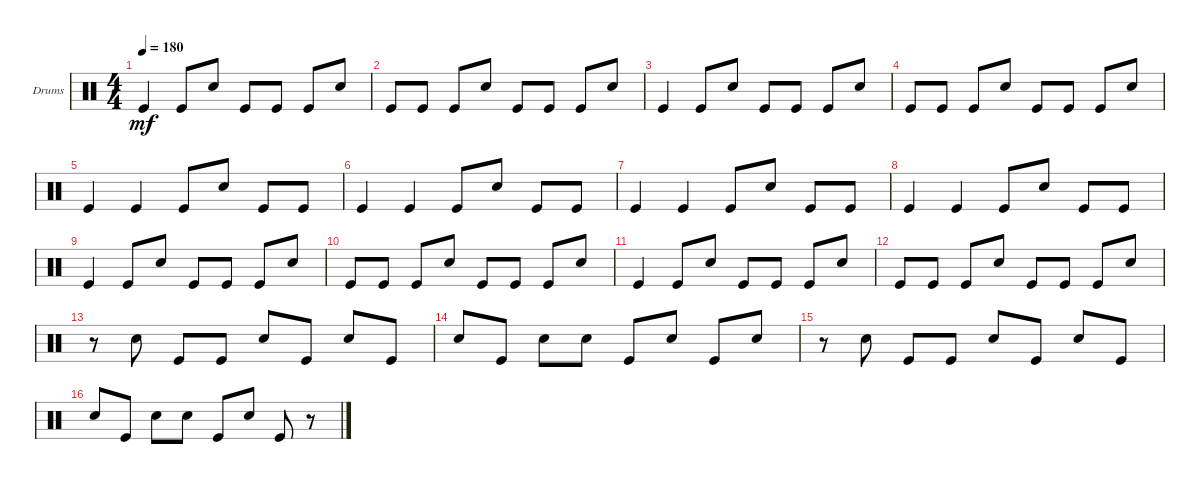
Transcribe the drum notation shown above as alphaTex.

\defaultSystemsLayout 4
\bracketExtendMode groupsimilarinstruments
\firstSystemTrackNameOrientation horizontal
\otherSystemsTrackNameOrientation horizontal
\track ("Drumkit" "Drums") {instrument percussion}
\staff {score}
\articulation defaults
\ts (4 4)
\tempo 180
\clef neutral
\ks c "Kick (hit)".4{dy mf} "Kick (hit)".8 "Snare (hit) 2".8 "Kick (hit)".8 "Kick (hit)".8 "Kick (hit)".8 "Snare (hit) 2".8
|
"Kick (hit)".8 "Kick (hit)".8 "Kick (hit)".8 "Snare (hit) 2".8 "Kick (hit)".8 "Kick (hit)".8 "Kick (hit)".8 "Snare (hit) 2".8 |
"Kick (hit)".4 "Kick (hit)".8 "Snare (hit) 2".8 "Kick (hit)".8 "Kick (hit)".8 "Kick (hit)".8 "Snare (hit) 2".8 |
"Kick (hit)".8 "Kick (hit)".8 "Kick (hit)".8 "Snare (hit) 2".8 "Kick (hit)".8 "Kick (hit)".8 "Kick (hit)".8 "Snare (hit) 2".8 |
"Kick (hit)".4 "Kick (hit)".4 "Kick (hit)".8 "Snare (hit) 2".8 "Kick (hit)".8 "Kick (hit)".8 |
"Kick (hit)".4 "Kick (hit)".4 "Kick (hit)".8 "Snare (hit) 2".8 "Kick (hit)".8 "Kick (hit)".8 |
"Kick (hit)".4 "Kick (hit)".4 "Kick (hit)".8 "Snare (hit) 2".8 "Kick (hit)".8 "Kick (hit)".8 |
"Kick (hit)".4 "Kick (hit)".4 "Kick (hit)".8 "Snare (hit) 2".8 "Kick (hit)".8 "Kick (hit)".8 |
"Kick (hit)".4 "Kick (hit)".8 "Snare (hit) 2".8 "Kick (hit)".8 "Kick (hit)".8 "Kick (hit)".8 "Snare (hit) 2".8 |
"Kick (hit)".8 "Kick (hit)".8 "Kick (hit)".8 "Snare (hit) 2".8 "Kick (hit)".8 "Kick (hit)".8 "Kick (hit)".8 "Snare (hit) 2".8 |
"Kick (hit)".4 "Kick (hit)".8 "Snare (hit) 2".8 "Kick (hit)".8 "Kick (hit)".8 "Kick (hit)".8 "Snare (hit) 2".8 |
"Kick (hit)".8 "Kick (hit)".8 "Kick (hit)".8 "Snare (hit) 2".8 "Kick (hit)".8 "Kick (hit)".8 "Kick (hit)".8 "Snare (hit) 2".8 |
r.8 "Snare (hit) 2".8 "Kick (hit)".8 "Kick (hit)".8 "Snare (hit) 2".8 "Kick (hit)".8 "Snare (hit) 2".8 "Kick (hit)".8 |
"Snare (hit) 2".8 "Kick (hit)".8 "Snare (hit) 2".8 "Snare (hit) 2".8 "Kick (hit)".8 "Snare (hit) 2".8 "Kick (hit)".8 "Snare (hit) 2".8 |
r.8 "Snare (hit) 2".8 "Kick (hit)".8 "Kick (hit)".8 "Snare (hit) 2".8 "Kick (hit)".8 "Snare (hit) 2".8 "Kick (hit)".8 |
"Snare (hit) 2".8 "Kick (hit)".8 "Snare (hit) 2".8 "Snare (hit) 2".8 "Kick (hit)".8 "Snare (hit) 2".8 "Kick (hit)".8 r.8
